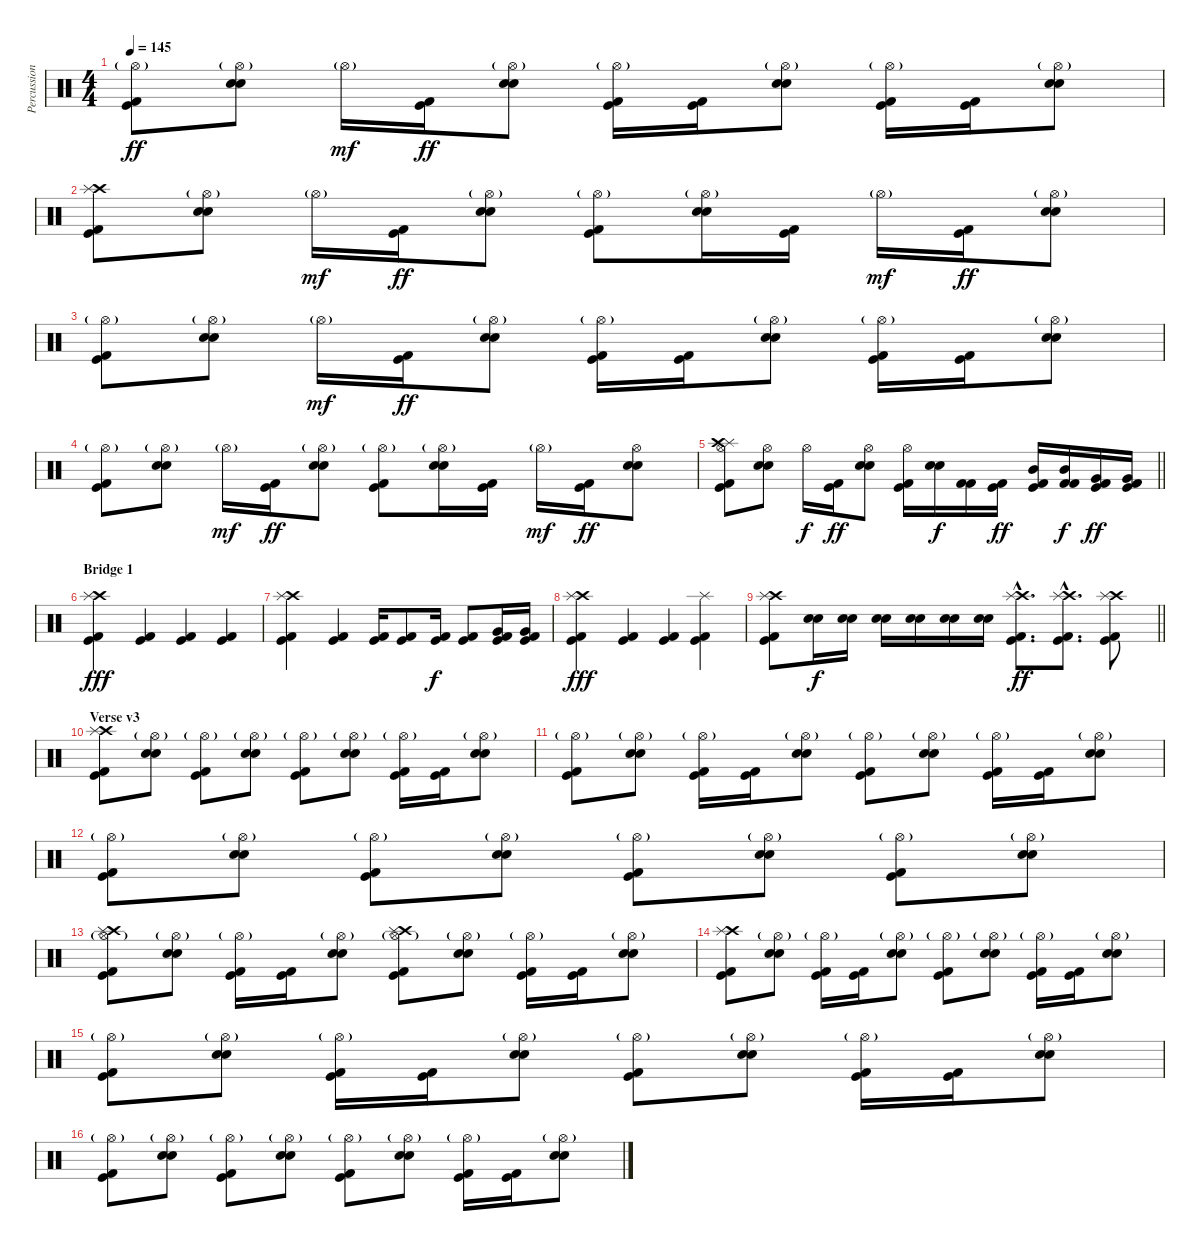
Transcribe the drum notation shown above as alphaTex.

\track ("Percussion" "Percussion") {instrument percussion}
\staff {score}
\articulation defaults
\ts (4 4)
\tempo 145
\clef neutral
\ks c
("Hi-Hat (open)"{g} "Kick (hit)" "Kick (hit) 2").8{dy ff} ("Hi-Hat (open)"{g} "Electric Snare (hit)" "Snare (hit) 2").8 "Hi-Hat (open)"{g}.16{dy mf} ("Kick (hit)" "Kick (hit) 2").16{dy ff} ("Hi-Hat (open)"{g} "Electric Snare (hit)" "Snare (hit) 2").8 ("Hi-Hat (open)"{g} "Kick (hit)" "Kick (hit) 2").16 ("Kick (hit)" "Kick (hit) 2").16 ("Hi-Hat (open)"{g} "Electric Snare (hit)" "Snare (hit) 2").8 ("Hi-Hat (open)"{g} "Kick (hit)" "Kick (hit) 2").16 ("Kick (hit)" "Kick (hit) 2").16 ("Hi-Hat (open)"{g} "Electric Snare (hit)" "Snare (hit) 2").8 |
("Crash high (hit)" "Splash (hit)" "Kick (hit)" "Kick (hit) 2").8 ("Hi-Hat (open)"{g} "Electric Snare (hit)" "Snare (hit) 2").8 "Hi-Hat (open)"{g}.16{dy mf} ("Kick (hit)" "Kick (hit) 2").16{dy ff} ("Hi-Hat (open)"{g} "Electric Snare (hit)" "Snare (hit) 2").8 ("Hi-Hat (open)"{g} "Kick (hit)" "Kick (hit) 2").8 ("Hi-Hat (open)"{g} "Electric Snare (hit)" "Snare (hit) 2").16 ("Kick (hit)" "Kick (hit) 2").16 "Hi-Hat (open)"{g}.16{dy mf} ("Kick (hit)" "Kick (hit) 2").16{dy ff} ("Hi-Hat (open)"{g} "Electric Snare (hit)" "Snare (hit) 2").8 |
("Hi-Hat (open)"{g} "Kick (hit)" "Kick (hit) 2").8 ("Hi-Hat (open)"{g} "Electric Snare (hit)" "Snare (hit) 2").8 "Hi-Hat (open)"{g}.16{dy mf} ("Kick (hit)" "Kick (hit) 2").16{dy ff} ("Hi-Hat (open)"{g} "Electric Snare (hit)" "Snare (hit) 2").8 ("Hi-Hat (open)"{g} "Kick (hit)" "Kick (hit) 2").16 ("Kick (hit)" "Kick (hit) 2").16 ("Hi-Hat (open)"{g} "Electric Snare (hit)" "Snare (hit) 2").8 ("Hi-Hat (open)"{g} "Kick (hit)" "Kick (hit) 2").16 ("Kick (hit)" "Kick (hit) 2").16 ("Hi-Hat (open)"{g} "Electric Snare (hit)" "Snare (hit) 2").8 |
("Hi-Hat (open)"{g} "Kick (hit)" "Kick (hit) 2").8 ("Hi-Hat (open)"{g} "Electric Snare (hit)" "Snare (hit) 2").8 "Hi-Hat (open)"{g}.16{dy mf} ("Kick (hit)" "Kick (hit) 2").16{dy ff} ("Hi-Hat (open)"{g} "Electric Snare (hit)" "Snare (hit) 2").8 ("Hi-Hat (open)"{g} "Kick (hit)" "Kick (hit) 2").8 ("Hi-Hat (open)"{g} "Electric Snare (hit)" "Snare (hit) 2").16 ("Kick (hit)" "Kick (hit) 2").16 "Hi-Hat (open)"{g}.16{dy mf} ("Kick (hit)" "Kick (hit) 2").16{dy ff} ("Hi-Hat (open)" "Electric Snare (hit)" "Snare (hit) 2").8 |
\barLineRight lightlight
("Hi-Hat (open)" "Splash (hit)" "Crash high (hit)" "Kick (hit)" "Kick (hit) 2").8 ("Hi-Hat (open)" "Electric Snare (hit)" "Snare (hit) 2").8 "Hi-Hat (open)".16{dy f} ("Kick (hit)" "Kick (hit) 2").16{dy ff} ("Hi-Hat (open)" "Electric Snare (hit)" "Snare (hit) 2").8 ("Hi-Hat (open)" "Kick (hit)" "Kick (hit) 2").16 ("Electric Snare (hit)" "Snare (hit) 2").16{dy f} ("Kick (hit) 2" "Kick (hit) 2").16 ("Kick (hit)" "Kick (hit) 2").16{dy ff} ("Mid Tom (hit)" "Kick (hit)" "Kick (hit) 2").16 ("Mid Tom (hit)" "Kick (hit) 2" "Kick (hit) 2").16{dy f} ("Very Low Tom (hit)" "Kick (hit)" "Kick (hit) 2").16{dy ff} ("Very Low Tom (hit)" "Kick (hit)" "Kick (hit) 2").16 |
\section ("" "Bridge 1")
("Crash high (hit)" "Splash (hit)" "Kick (hit)" "Kick (hit) 2").4{dy fff} ("Kick (hit)" "Kick (hit) 2").4 ("Kick (hit)" "Kick (hit) 2").4 ("Kick (hit)" "Kick (hit) 2").4 |
("Crash high (hit)" "Splash (hit)" "Kick (hit)" "Kick (hit) 2").4 ("Kick (hit)" "Kick (hit) 2").4 ("Kick (hit)" "Kick (hit) 2").16 ("Kick (hit)" "Kick (hit) 2").8 ("Kick (hit)" "Kick (hit) 2").16{dy f} ("Kick (hit)" "Kick (hit) 2").8 ("Very Low Tom (hit)" "Kick (hit)" "Kick (hit) 2").16 ("Very Low Tom (hit)" "Kick (hit)" "Kick (hit) 2").16 |
("Crash high (hit)" "Splash (hit)" "Kick (hit)" "Kick (hit) 2").4{dy fff} ("Kick (hit)" "Kick (hit) 2").4 ("Kick (hit)" "Kick (hit) 2").4 ("Splash (hit)" "Kick (hit)" "Kick (hit) 2").4 |
\barLineRight lightlight
("Crash high (hit)" "Splash (hit)" "Kick (hit)" "Kick (hit) 2").8 ("Electric Snare (hit)" "Snare (hit) 2").16{dy f} ("Electric Snare (hit)" "Snare (hit) 2").16 ("Electric Snare (hit)" "Snare (hit) 2").16 ("Electric Snare (hit)" "Snare (hit) 2").16 ("Electric Snare (hit)" "Snare (hit) 2").16 ("Electric Snare (hit)" "Snare (hit) 2").16 ("Crash high (hit)"{hac} "Splash (hit)"{hac} "Kick (hit)"{hac} "Kick (hit) 2"{hac}).8{d dy ff} ("Crash high (hit)"{hac} "Splash (hit)"{hac} "Kick (hit)"{hac} "Kick (hit) 2"{hac}).8{d} ("Crash high (hit)" "Splash (hit)" "Kick (hit)" "Kick (hit) 2").8 |
\section ("" "Verse v3")
("Crash high (hit)" "Splash (hit)" "Kick (hit)" "Kick (hit) 2").8 ("Hi-Hat (open)"{g} "Electric Snare (hit)" "Snare (hit) 2").8 ("Hi-Hat (open)"{g} "Kick (hit)" "Kick (hit) 2").8 ("Hi-Hat (open)"{g} "Electric Snare (hit)" "Snare (hit) 2").8 ("Hi-Hat (open)"{g} "Kick (hit)" "Kick (hit) 2").8 ("Hi-Hat (open)"{g} "Electric Snare (hit)" "Snare (hit) 2").8 ("Hi-Hat (open)"{g} "Kick (hit)" "Kick (hit) 2").16 ("Kick (hit)" "Kick (hit) 2").16 ("Hi-Hat (open)"{g} "Electric Snare (hit)" "Snare (hit) 2").8 |
("Hi-Hat (open)"{g} "Kick (hit)" "Kick (hit) 2").8 ("Hi-Hat (open)"{g} "Electric Snare (hit)" "Snare (hit) 2").8 ("Hi-Hat (open)"{g} "Kick (hit)" "Kick (hit) 2").16 ("Kick (hit)" "Kick (hit) 2").16 ("Hi-Hat (open)"{g} "Electric Snare (hit)" "Snare (hit) 2").8 ("Hi-Hat (open)"{g} "Kick (hit)" "Kick (hit) 2").8 ("Hi-Hat (open)"{g} "Electric Snare (hit)" "Snare (hit) 2").8 ("Hi-Hat (open)"{g} "Kick (hit)" "Kick (hit) 2").16 ("Kick (hit)" "Kick (hit) 2").16 ("Hi-Hat (open)"{g} "Electric Snare (hit)" "Snare (hit) 2").8 |
("Hi-Hat (open)"{g} "Kick (hit)" "Kick (hit) 2").8 ("Hi-Hat (open)"{g} "Electric Snare (hit)" "Snare (hit) 2").8 ("Hi-Hat (open)"{g} "Kick (hit)" "Kick (hit) 2").8 ("Hi-Hat (open)"{g} "Electric Snare (hit)" "Snare (hit) 2").8 ("Hi-Hat (open)"{g} "Kick (hit)" "Kick (hit) 2").8 ("Hi-Hat (open)"{g} "Electric Snare (hit)" "Snare (hit) 2").8 ("Hi-Hat (open)"{g} "Kick (hit)" "Kick (hit) 2").8 ("Hi-Hat (open)"{g} "Electric Snare (hit)" "Snare (hit) 2").8 |
("Hi-Hat (open)"{g} "Crash high (hit)" "Splash (hit)" "Kick (hit)" "Kick (hit) 2").8 ("Hi-Hat (open)"{g} "Electric Snare (hit)" "Snare (hit) 2").8 ("Hi-Hat (open)"{g} "Kick (hit)" "Kick (hit) 2").16 ("Kick (hit)" "Kick (hit) 2").16 ("Hi-Hat (open)"{g} "Electric Snare (hit)" "Snare (hit) 2").8 ("Hi-Hat (open)"{g} "Crash high (hit)" "Splash (hit)" "Kick (hit)" "Kick (hit) 2").8 ("Hi-Hat (open)"{g} "Electric Snare (hit)" "Snare (hit) 2").8 ("Hi-Hat (open)"{g} "Kick (hit)" "Kick (hit) 2").16 ("Kick (hit)" "Kick (hit) 2").16 ("Hi-Hat (open)"{g} "Electric Snare (hit)" "Snare (hit) 2").8 |
("Crash high (hit)" "Splash (hit)" "Kick (hit)" "Kick (hit) 2").8 ("Hi-Hat (open)"{g} "Electric Snare (hit)" "Snare (hit) 2").8 ("Hi-Hat (open)"{g} "Kick (hit)" "Kick (hit) 2").16 ("Kick (hit)" "Kick (hit) 2").16 ("Hi-Hat (open)"{g} "Electric Snare (hit)" "Snare (hit) 2").8 ("Hi-Hat (open)"{g} "Kick (hit)" "Kick (hit) 2").8 ("Hi-Hat (open)"{g} "Electric Snare (hit)" "Snare (hit) 2").8 ("Hi-Hat (open)"{g} "Kick (hit)" "Kick (hit) 2").16 ("Kick (hit)" "Kick (hit) 2").16 ("Hi-Hat (open)"{g} "Electric Snare (hit)" "Snare (hit) 2").8 |
("Hi-Hat (open)"{g} "Kick (hit)" "Kick (hit) 2").8 ("Hi-Hat (open)"{g} "Electric Snare (hit)" "Snare (hit) 2").8 ("Hi-Hat (open)"{g} "Kick (hit)" "Kick (hit) 2").16 ("Kick (hit)" "Kick (hit) 2").16 ("Hi-Hat (open)"{g} "Electric Snare (hit)" "Snare (hit) 2").8 ("Hi-Hat (open)"{g} "Kick (hit)" "Kick (hit) 2").8 ("Hi-Hat (open)"{g} "Electric Snare (hit)" "Snare (hit) 2").8 ("Hi-Hat (open)"{g} "Kick (hit)" "Kick (hit) 2").16 ("Kick (hit)" "Kick (hit) 2").16 ("Hi-Hat (open)"{g} "Electric Snare (hit)" "Snare (hit) 2").8 |
("Hi-Hat (open)"{g} "Kick (hit)" "Kick (hit) 2").8 ("Hi-Hat (open)"{g} "Electric Snare (hit)" "Snare (hit) 2").8 ("Hi-Hat (open)"{g} "Kick (hit)" "Kick (hit) 2").8 ("Hi-Hat (open)"{g} "Electric Snare (hit)" "Snare (hit) 2").8 ("Hi-Hat (open)"{g} "Kick (hit)" "Kick (hit) 2").8 ("Hi-Hat (open)"{g} "Electric Snare (hit)" "Snare (hit) 2").8 ("Hi-Hat (open)"{g} "Kick (hit)" "Kick (hit) 2").16 ("Kick (hit)" "Kick (hit) 2").16 ("Hi-Hat (open)"{g} "Electric Snare (hit)" "Snare (hit) 2").8
